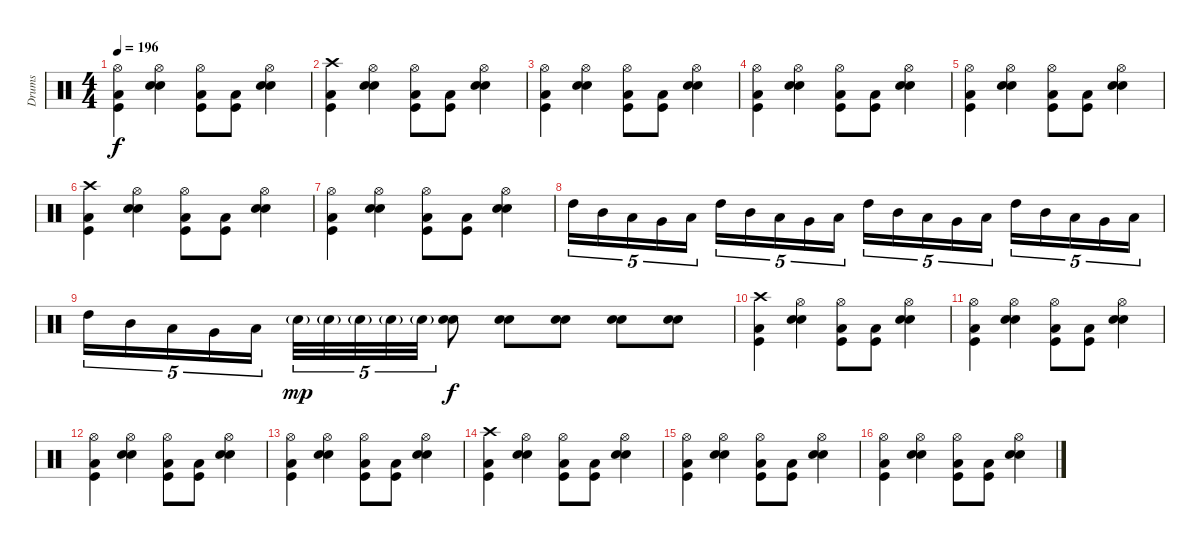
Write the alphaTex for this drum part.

\track ("Drums" "Drums") {instrument percussion}
\staff {score}
\articulation defaults
\ts (4 4)
\tempo 196
\clef neutral
\ks c
("Hi-Hat (open)" "Kick (hit)" "Low Tom (hit)").4{dy f} ("Hi-Hat (open)" "Snare (hit) 2" "Electric Snare (hit)").4 ("Hi-Hat (open)" "Kick (hit)" "Low Tom (hit)").8 ("Kick (hit)" "Low Tom (hit)").8 ("Hi-Hat (open)" "Snare (hit) 2" "Electric Snare (hit)").4 |
("Crash high (hit)" "Kick (hit)" "Low Tom (hit)").4 ("Hi-Hat (open)" "Snare (hit) 2" "Electric Snare (hit)").4 ("Hi-Hat (open)" "Kick (hit)" "Low Tom (hit)").8 ("Kick (hit)" "Low Tom (hit)").8 ("Hi-Hat (open)" "Snare (hit) 2" "Electric Snare (hit)").4 |
("Hi-Hat (open)" "Kick (hit)" "Low Tom (hit)").4 ("Hi-Hat (open)" "Snare (hit) 2" "Electric Snare (hit)").4 ("Hi-Hat (open)" "Kick (hit)" "Low Tom (hit)").8 ("Kick (hit)" "Low Tom (hit)").8 ("Hi-Hat (open)" "Snare (hit) 2" "Electric Snare (hit)").4 |
("Hi-Hat (open)" "Kick (hit)" "Low Tom (hit)").4 ("Hi-Hat (open)" "Snare (hit) 2" "Electric Snare (hit)").4 ("Hi-Hat (open)" "Kick (hit)" "Low Tom (hit)").8 ("Kick (hit)" "Low Tom (hit)").8 ("Hi-Hat (open)" "Snare (hit) 2" "Electric Snare (hit)").4 |
("Hi-Hat (open)" "Kick (hit)" "Low Tom (hit)").4 ("Hi-Hat (open)" "Snare (hit) 2" "Electric Snare (hit)").4 ("Hi-Hat (open)" "Kick (hit)" "Low Tom (hit)").8 ("Kick (hit)" "Low Tom (hit)").8 ("Hi-Hat (open)" "Snare (hit) 2" "Electric Snare (hit)").4 |
("Crash high (hit)" "Kick (hit)" "Low Tom (hit)").4 ("Hi-Hat (open)" "Snare (hit) 2" "Electric Snare (hit)").4 ("Hi-Hat (open)" "Kick (hit)" "Low Tom (hit)").8 ("Kick (hit)" "Low Tom (hit)").8 ("Hi-Hat (open)" "Snare (hit) 2" "Electric Snare (hit)").4 |
("Hi-Hat (open)" "Kick (hit)" "Low Tom (hit)").4 ("Hi-Hat (open)" "Snare (hit) 2" "Electric Snare (hit)").4 ("Hi-Hat (open)" "Kick (hit)" "Low Tom (hit)").8 ("Kick (hit)" "Low Tom (hit)").8 ("Hi-Hat (open)" "Snare (hit) 2" "Electric Snare (hit)").4 |
"High Tom (hit)".16{tu (5 4)} "Mid Tom (hit)".16{tu (5 4)} "Low Tom (hit)".16{tu (5 4)} "Very Low Tom (hit)".16{tu (5 4)} "Low Floor Tom (hit)".16{tu (5 4)} "High Tom (hit)".16{tu (5 4)} "Mid Tom (hit)".16{tu (5 4)} "Low Tom (hit)".16{tu (5 4)} "Very Low Tom (hit)".16{tu (5 4)} "Low Floor Tom (hit)".16{tu (5 4)} "High Tom (hit)".16{tu (5 4)} "Mid Tom (hit)".16{tu (5 4)} "Low Tom (hit)".16{tu (5 4)} "Very Low Tom (hit)".16{tu (5 4)} "Low Floor Tom (hit)".16{tu (5 4)} "High Tom (hit)".16{tu (5 4)} "Mid Tom (hit)".16{tu (5 4)} "Low Tom (hit)".16{tu (5 4)} "Very Low Tom (hit)".16{tu (5 4)} "Low Floor Tom (hit)".16{tu (5 4)} |
"High Tom (hit)".16{tu (5 4)} "Mid Tom (hit)".16{tu (5 4)} "Low Tom (hit)".16{tu (5 4)} "Very Low Tom (hit)".16{tu (5 4)} "Low Floor Tom (hit)".16{tu (5 4)} "Snare (hit)"{g}.32{tu (5 4) dy mp} "Snare (hit)"{g}.32{tu (5 4)} "Snare (hit)"{g}.32{tu (5 4)} "Snare (hit)"{g}.32{tu (5 4)} "Snare (hit)"{g}.32{tu (5 4)} ("Snare (hit) 2" "Electric Snare (hit)").8{dy f} ("Snare (hit) 2" "Electric Snare (hit)").8 ("Snare (hit) 2" "Electric Snare (hit)").8 ("Snare (hit) 2" "Electric Snare (hit)").8 ("Snare (hit) 2" "Electric Snare (hit)").8 |
("Crash high (hit)" "Kick (hit)" "Low Tom (hit)").4 ("Hi-Hat (open)" "Snare (hit) 2" "Electric Snare (hit)").4 ("Hi-Hat (open)" "Kick (hit)" "Low Tom (hit)").8 ("Kick (hit)" "Low Tom (hit)").8 ("Hi-Hat (open)" "Snare (hit) 2" "Electric Snare (hit)").4 |
("Hi-Hat (open)" "Kick (hit)" "Low Tom (hit)").4 ("Hi-Hat (open)" "Snare (hit) 2" "Electric Snare (hit)").4 ("Hi-Hat (open)" "Kick (hit)" "Low Tom (hit)").8 ("Kick (hit)" "Low Tom (hit)").8 ("Hi-Hat (open)" "Snare (hit) 2" "Electric Snare (hit)").4 |
("Hi-Hat (open)" "Kick (hit)" "Low Tom (hit)").4 ("Hi-Hat (open)" "Snare (hit) 2" "Electric Snare (hit)").4 ("Hi-Hat (open)" "Kick (hit)" "Low Tom (hit)").8 ("Kick (hit)" "Low Tom (hit)").8 ("Hi-Hat (open)" "Snare (hit) 2" "Electric Snare (hit)").4 |
("Hi-Hat (open)" "Kick (hit)" "Low Tom (hit)").4 ("Hi-Hat (open)" "Snare (hit) 2" "Electric Snare (hit)").4 ("Hi-Hat (open)" "Kick (hit)" "Low Tom (hit)").8 ("Kick (hit)" "Low Tom (hit)").8 ("Hi-Hat (open)" "Snare (hit) 2" "Electric Snare (hit)").4 |
("Crash high (hit)" "Kick (hit)" "Low Tom (hit)").4 ("Hi-Hat (open)" "Snare (hit) 2" "Electric Snare (hit)").4 ("Hi-Hat (open)" "Kick (hit)" "Low Tom (hit)").8 ("Kick (hit)" "Low Tom (hit)").8 ("Hi-Hat (open)" "Snare (hit) 2" "Electric Snare (hit)").4 |
("Hi-Hat (open)" "Kick (hit)" "Low Tom (hit)").4 ("Hi-Hat (open)" "Snare (hit) 2" "Electric Snare (hit)").4 ("Hi-Hat (open)" "Kick (hit)" "Low Tom (hit)").8 ("Kick (hit)" "Low Tom (hit)").8 ("Hi-Hat (open)" "Snare (hit) 2" "Electric Snare (hit)").4 |
("Hi-Hat (open)" "Kick (hit)" "Low Tom (hit)").4 ("Hi-Hat (open)" "Snare (hit) 2" "Electric Snare (hit)").4 ("Hi-Hat (open)" "Kick (hit)" "Low Tom (hit)").8 ("Kick (hit)" "Low Tom (hit)").8 ("Hi-Hat (open)" "Snare (hit) 2" "Electric Snare (hit)").4
